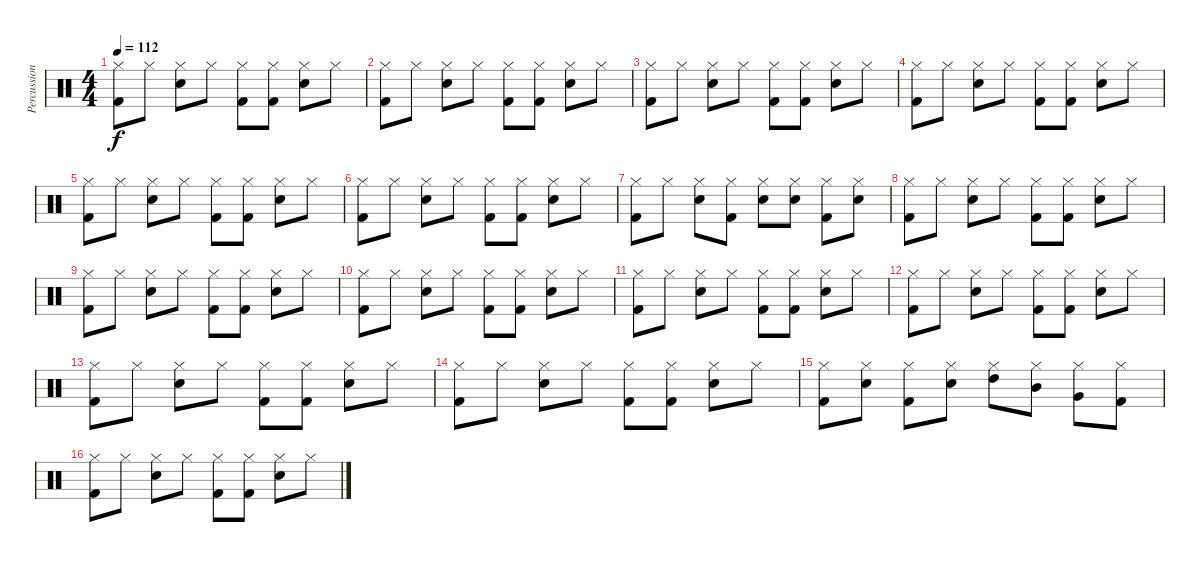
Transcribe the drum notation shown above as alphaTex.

\track ("Percussion" "Percussion") {instrument percussion}
\staff {score}
\articulation defaults
\ts (4 4)
\tempo 112
\clef neutral
\ks c
("Kick (hit) 2" "Hi-Hat (closed)").8{dy f} "Hi-Hat (closed)".8 ("Snare (hit) 2" "Hi-Hat (closed)").8 "Hi-Hat (closed)".8 ("Kick (hit) 2" "Hi-Hat (closed)").8 ("Kick (hit) 2" "Hi-Hat (closed)").8 ("Snare (hit) 2" "Hi-Hat (closed)").8 "Hi-Hat (closed)".8 |
("Kick (hit) 2" "Hi-Hat (closed)").8 "Hi-Hat (closed)".8 ("Snare (hit) 2" "Hi-Hat (closed)").8 "Hi-Hat (closed)".8 ("Kick (hit) 2" "Hi-Hat (closed)").8 ("Kick (hit) 2" "Hi-Hat (closed)").8 ("Snare (hit) 2" "Hi-Hat (closed)").8 "Hi-Hat (closed)".8 |
("Kick (hit) 2" "Hi-Hat (closed)").8 "Hi-Hat (closed)".8 ("Snare (hit) 2" "Hi-Hat (closed)").8 "Hi-Hat (closed)".8 ("Kick (hit) 2" "Hi-Hat (closed)").8 ("Kick (hit) 2" "Hi-Hat (closed)").8 ("Snare (hit) 2" "Hi-Hat (closed)").8 "Hi-Hat (closed)".8 |
("Kick (hit) 2" "Hi-Hat (closed)").8 "Hi-Hat (closed)".8 ("Snare (hit) 2" "Hi-Hat (closed)").8 "Hi-Hat (closed)".8 ("Kick (hit) 2" "Hi-Hat (closed)").8 ("Kick (hit) 2" "Hi-Hat (closed)").8 ("Snare (hit) 2" "Hi-Hat (closed)").8 "Hi-Hat (closed)".8 |
("Kick (hit) 2" "Hi-Hat (closed)").8 "Hi-Hat (closed)".8 ("Snare (hit) 2" "Hi-Hat (closed)").8 "Hi-Hat (closed)".8 ("Kick (hit) 2" "Hi-Hat (closed)").8 ("Kick (hit) 2" "Hi-Hat (closed)").8 ("Snare (hit) 2" "Hi-Hat (closed)").8 "Hi-Hat (closed)".8 |
("Kick (hit) 2" "Hi-Hat (closed)").8 "Hi-Hat (closed)".8 ("Snare (hit) 2" "Hi-Hat (closed)").8 "Hi-Hat (closed)".8 ("Kick (hit) 2" "Hi-Hat (closed)").8 ("Kick (hit) 2" "Hi-Hat (closed)").8 ("Snare (hit) 2" "Hi-Hat (closed)").8 "Hi-Hat (closed)".8 |
("Kick (hit) 2" "Hi-Hat (closed)").8 "Hi-Hat (closed)".8 ("Snare (hit) 2" "Hi-Hat (closed)").8 ("Kick (hit) 2" "Hi-Hat (closed)").8 ("Snare (hit) 2" "Hi-Hat (closed)").8 ("Snare (hit) 2" "Hi-Hat (closed)").8 ("Kick (hit) 2" "Hi-Hat (closed)").8 ("Snare (hit) 2" "Hi-Hat (closed)").8 |
("Kick (hit) 2" "Hi-Hat (closed)").8 "Hi-Hat (closed)".8 ("Snare (hit) 2" "Hi-Hat (closed)").8 "Hi-Hat (closed)".8 ("Kick (hit) 2" "Hi-Hat (closed)").8 ("Kick (hit) 2" "Hi-Hat (closed)").8 ("Snare (hit) 2" "Hi-Hat (closed)").8 "Hi-Hat (closed)".8 |
("Kick (hit) 2" "Hi-Hat (closed)").8 "Hi-Hat (closed)".8 ("Snare (hit) 2" "Hi-Hat (closed)").8 "Hi-Hat (closed)".8 ("Kick (hit) 2" "Hi-Hat (closed)").8 ("Kick (hit) 2" "Hi-Hat (closed)").8 ("Snare (hit) 2" "Hi-Hat (closed)").8 "Hi-Hat (closed)".8 |
("Kick (hit) 2" "Hi-Hat (closed)").8 "Hi-Hat (closed)".8 ("Snare (hit) 2" "Hi-Hat (closed)").8 "Hi-Hat (closed)".8 ("Kick (hit) 2" "Hi-Hat (closed)").8 ("Kick (hit) 2" "Hi-Hat (closed)").8 ("Snare (hit) 2" "Hi-Hat (closed)").8 "Hi-Hat (closed)".8 |
("Kick (hit) 2" "Hi-Hat (closed)").8 "Hi-Hat (closed)".8 ("Snare (hit) 2" "Hi-Hat (closed)").8 "Hi-Hat (closed)".8 ("Kick (hit) 2" "Hi-Hat (closed)").8 ("Kick (hit) 2" "Hi-Hat (closed)").8 ("Snare (hit) 2" "Hi-Hat (closed)").8 "Hi-Hat (closed)".8 |
("Kick (hit) 2" "Hi-Hat (closed)").8 "Hi-Hat (closed)".8 ("Snare (hit) 2" "Hi-Hat (closed)").8 "Hi-Hat (closed)".8 ("Kick (hit) 2" "Hi-Hat (closed)").8 ("Kick (hit) 2" "Hi-Hat (closed)").8 ("Snare (hit) 2" "Hi-Hat (closed)").8 "Hi-Hat (closed)".8 |
("Kick (hit) 2" "Hi-Hat (closed)").8 "Hi-Hat (closed)".8 ("Snare (hit) 2" "Hi-Hat (closed)").8 "Hi-Hat (closed)".8 ("Kick (hit) 2" "Hi-Hat (closed)").8 ("Kick (hit) 2" "Hi-Hat (closed)").8 ("Snare (hit) 2" "Hi-Hat (closed)").8 "Hi-Hat (closed)".8 |
("Kick (hit) 2" "Hi-Hat (closed)").8 "Hi-Hat (closed)".8 ("Snare (hit) 2" "Hi-Hat (closed)").8 "Hi-Hat (closed)".8 ("Kick (hit) 2" "Hi-Hat (closed)").8 ("Kick (hit) 2" "Hi-Hat (closed)").8 ("Snare (hit) 2" "Hi-Hat (closed)").8 "Hi-Hat (closed)".8 |
("Kick (hit) 2" "Hi-Hat (closed)").8 ("Snare (hit) 2" "Hi-Hat (closed)").8 ("Kick (hit) 2" "Hi-Hat (closed)").8 ("Snare (hit) 2" "Hi-Hat (closed)").8 ("High Tom (hit)" "Hi-Hat (closed)").8 ("Mid Tom (hit)" "Hi-Hat (closed)").8 ("Very Low Tom (hit)" "Hi-Hat (closed)").8 ("Kick (hit) 2" "Hi-Hat (closed)").8 |
("Kick (hit) 2" "Hi-Hat (closed)").8 "Hi-Hat (closed)".8 ("Snare (hit) 2" "Hi-Hat (closed)").8 "Hi-Hat (closed)".8 ("Kick (hit) 2" "Hi-Hat (closed)").8 ("Kick (hit) 2" "Hi-Hat (closed)").8 ("Snare (hit) 2" "Hi-Hat (closed)").8 "Hi-Hat (closed)".8
